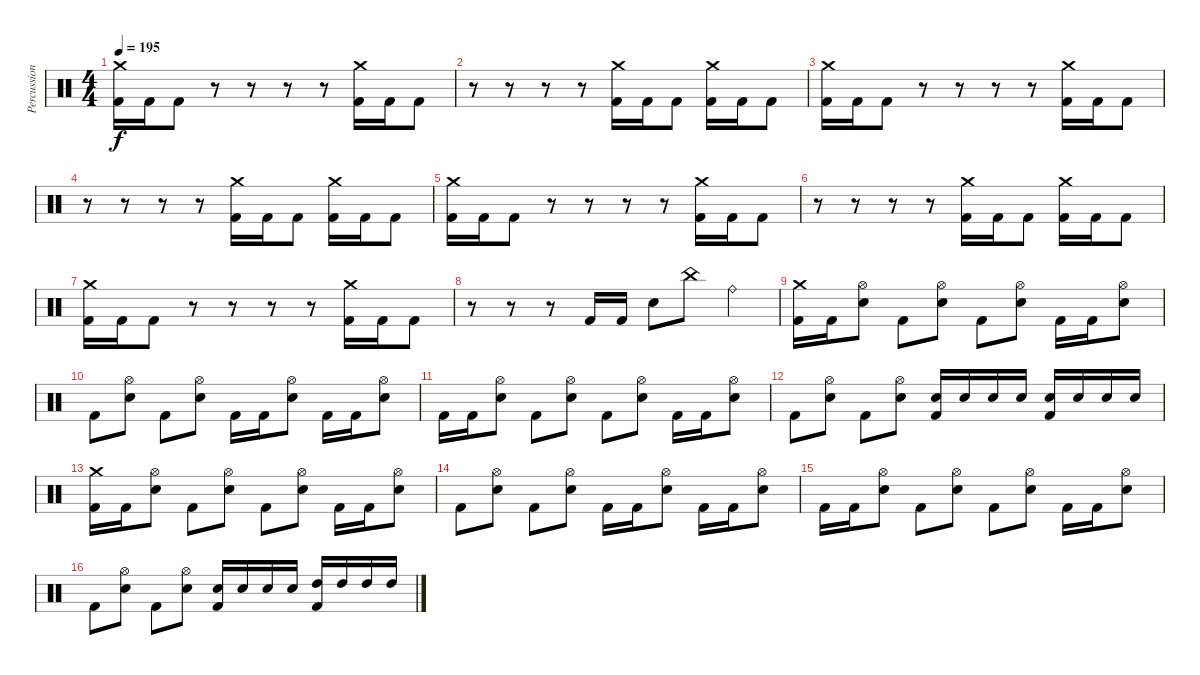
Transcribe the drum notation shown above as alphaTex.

\track ("Percussion" "Percussion") {instrument percussion}
\staff {score}
\articulation defaults
\ts (4 4)
\tempo 195
\clef neutral
\ks c
("Crash medium (hit)" "Kick (hit) 2").16{dy f} "Kick (hit) 2".16 "Kick (hit) 2".8 r.8 r.8 r.8 r.8 ("Crash medium (hit)" "Kick (hit) 2").16 "Kick (hit) 2".16 "Kick (hit) 2".8 |
r.8 r.8 r.8 r.8 ("Crash medium (hit)" "Kick (hit) 2").16 "Kick (hit) 2".16 "Kick (hit) 2".8 ("Crash medium (hit)" "Kick (hit) 2").16 "Kick (hit) 2".16 "Kick (hit) 2".8 |
("Crash medium (hit)" "Kick (hit) 2").16 "Kick (hit) 2".16 "Kick (hit) 2".8 r.8 r.8 r.8 r.8 ("Crash medium (hit)" "Kick (hit) 2").16 "Kick (hit) 2".16 "Kick (hit) 2".8 |
r.8 r.8 r.8 r.8 ("Crash medium (hit)" "Kick (hit) 2").16 "Kick (hit) 2".16 "Kick (hit) 2".8 ("Crash medium (hit)" "Kick (hit) 2").16 "Kick (hit) 2".16 "Kick (hit) 2".8 |
("Crash medium (hit)" "Kick (hit) 2").16 "Kick (hit) 2".16 "Kick (hit) 2".8 r.8 r.8 r.8 r.8 ("Crash medium (hit)" "Kick (hit) 2").16 "Kick (hit) 2".16 "Kick (hit) 2".8 |
r.8 r.8 r.8 r.8 ("Crash medium (hit)" "Kick (hit) 2").16 "Kick (hit) 2".16 "Kick (hit) 2".8 ("Crash medium (hit)" "Kick (hit) 2").16 "Kick (hit) 2".16 "Kick (hit) 2".8 |
("Crash medium (hit)" "Kick (hit) 2").16 "Kick (hit) 2".16 "Kick (hit) 2".8 r.8 r.8 r.8 r.8 ("Crash medium (hit)" "Kick (hit) 2").16 "Kick (hit) 2".16 "Kick (hit) 2".8 |
r.8 r.8 r.8 "Kick (hit) 2".16 "Kick (hit) 2".16 "Snare (hit) 2".8 "China (hit)".8 "Ride (bell)".4 |
("Crash medium (hit)" "Kick (hit) 2").16 "Kick (hit) 2".16 ("Hi-Hat (open)" "Snare (hit) 2").8 "Kick (hit) 2".8 ("Hi-Hat (open)" "Snare (hit) 2").8 "Kick (hit) 2".8 ("Hi-Hat (open)" "Snare (hit) 2").8 "Kick (hit) 2".16 "Kick (hit) 2".16 ("Hi-Hat (open)" "Snare (hit) 2").8 |
"Kick (hit) 2".8 ("Hi-Hat (open)" "Snare (hit) 2").8 "Kick (hit) 2".8 ("Hi-Hat (open)" "Snare (hit) 2").8 "Kick (hit) 2".16 "Kick (hit) 2".16 ("Hi-Hat (open)" "Snare (hit) 2").8 "Kick (hit) 2".16 "Kick (hit) 2".16 ("Hi-Hat (open)" "Snare (hit) 2").8 |
"Kick (hit) 2".16 "Kick (hit) 2".16 ("Hi-Hat (open)" "Snare (hit) 2").8 "Kick (hit) 2".8 ("Hi-Hat (open)" "Snare (hit) 2").8 "Kick (hit) 2".8 ("Hi-Hat (open)" "Snare (hit) 2").8 "Kick (hit) 2".16 "Kick (hit) 2".16 ("Hi-Hat (open)" "Snare (hit) 2").8 |
"Kick (hit) 2".8 ("Hi-Hat (open)" "Snare (hit) 2").8 "Kick (hit) 2".8 ("Hi-Hat (open)" "Snare (hit) 2").8 ("Snare (hit) 2" "Kick (hit) 2").16 "Snare (hit) 2".16 "Snare (hit) 2".16 "Snare (hit) 2".16 ("Snare (hit) 2" "Kick (hit) 2").16 "Snare (hit) 2".16 "Snare (hit) 2".16 "Snare (hit) 2".16 |
("Crash medium (hit)" "Kick (hit) 2").16 "Kick (hit) 2".16 ("Hi-Hat (open)" "Snare (hit) 2").8 "Kick (hit) 2".8 ("Hi-Hat (open)" "Snare (hit) 2").8 "Kick (hit) 2".8 ("Hi-Hat (open)" "Snare (hit) 2").8 "Kick (hit) 2".16 "Kick (hit) 2".16 ("Hi-Hat (open)" "Snare (hit) 2").8 |
"Kick (hit) 2".8 ("Hi-Hat (open)" "Snare (hit) 2").8 "Kick (hit) 2".8 ("Hi-Hat (open)" "Snare (hit) 2").8 "Kick (hit) 2".16 "Kick (hit) 2".16 ("Hi-Hat (open)" "Snare (hit) 2").8 "Kick (hit) 2".16 "Kick (hit) 2".16 ("Hi-Hat (open)" "Snare (hit) 2").8 |
"Kick (hit) 2".16 "Kick (hit) 2".16 ("Hi-Hat (open)" "Snare (hit) 2").8 "Kick (hit) 2".8 ("Hi-Hat (open)" "Snare (hit) 2").8 "Kick (hit) 2".8 ("Hi-Hat (open)" "Snare (hit) 2").8 "Kick (hit) 2".16 "Kick (hit) 2".16 ("Hi-Hat (open)" "Snare (hit) 2").8 |
"Kick (hit) 2".8 ("Hi-Hat (open)" "Snare (hit) 2").8 "Kick (hit) 2".8 ("Hi-Hat (open)" "Snare (hit) 2").8 ("Snare (hit) 2" "Kick (hit) 2").16 "Snare (hit) 2".16 "Snare (hit) 2".16 "Snare (hit) 2".16 ("High Tom (hit)" "Kick (hit) 2").16 "High Tom (hit)".16 "High Tom (hit)".16 "High Tom (hit)".16
